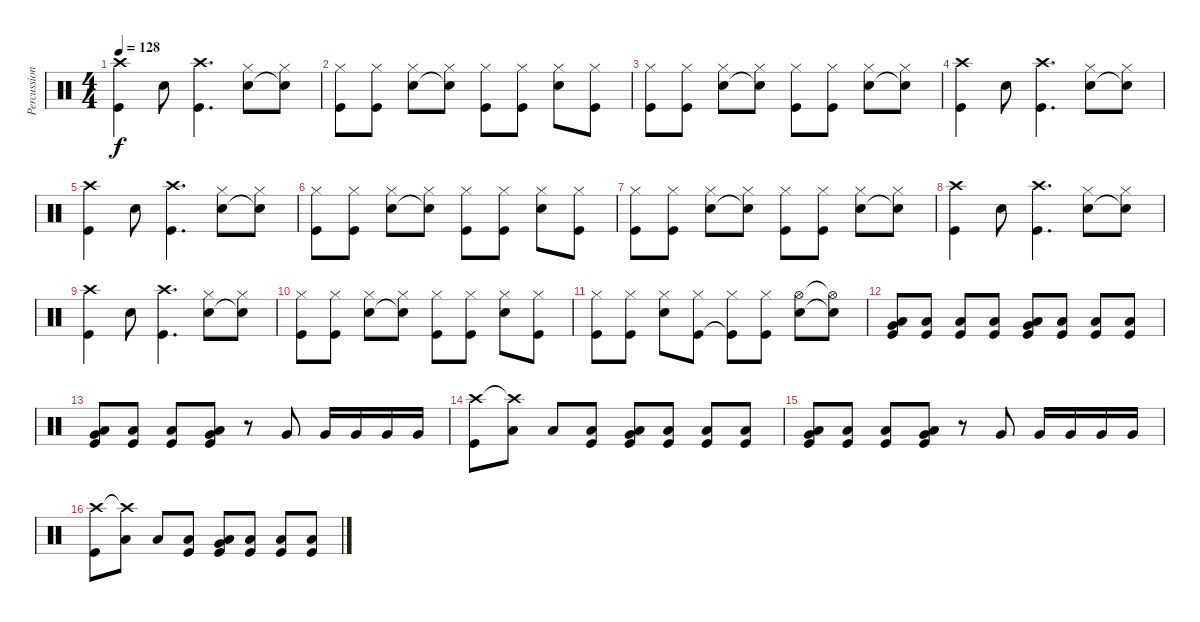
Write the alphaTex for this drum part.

\track ("Percussion" "Percussion") {instrument percussion}
\staff {score}
\articulation defaults
\ts (4 4)
\tempo 128
\clef neutral
\ks c
("Crash high (hit)" "Kick (hit)").4{dy f} "Snare (hit) 2".8 ("Crash high (hit)" "Kick (hit)").4{d} ("Hi-Hat (closed)" "Snare (hit) 2").8 ("Hi-Hat (closed)" "Snare (hit) 2"{t}).8 |
("Hi-Hat (closed)" "Kick (hit)").8 ("Hi-Hat (closed)" "Kick (hit)").8 ("Hi-Hat (closed)" "Snare (hit) 2").8 ("Hi-Hat (closed)" "Electric Snare (hit)"{t}).8 ("Hi-Hat (closed)" "Kick (hit)").8 ("Hi-Hat (closed)" "Kick (hit)").8 ("Hi-Hat (closed)" "Snare (hit) 2").8 ("Hi-Hat (closed)" "Kick (hit)").8 |
("Hi-Hat (closed)" "Kick (hit)").8 ("Hi-Hat (closed)" "Kick (hit)").8 ("Hi-Hat (closed)" "Snare (hit) 2").8 ("Hi-Hat (closed)" "Snare (hit) 2"{t}).8 ("Hi-Hat (closed)" "Kick (hit)").8 ("Hi-Hat (closed)" "Kick (hit)").8 ("Hi-Hat (closed)" "Snare (hit) 2").8 ("Hi-Hat (closed)" "Snare (hit) 2"{t}).8 |
("Crash high (hit)" "Kick (hit)").4 "Snare (hit) 2".8 ("Crash high (hit)" "Kick (hit)").4{d} ("Hi-Hat (closed)" "Snare (hit) 2").8 ("Hi-Hat (closed)" "Snare (hit) 2"{t}).8 |
("Crash high (hit)" "Kick (hit)").4 "Snare (hit) 2".8 ("Crash high (hit)" "Kick (hit)").4{d} ("Hi-Hat (closed)" "Snare (hit) 2").8 ("Hi-Hat (closed)" "Snare (hit) 2"{t}).8 |
("Hi-Hat (closed)" "Kick (hit)").8 ("Hi-Hat (closed)" "Kick (hit)").8 ("Hi-Hat (closed)" "Snare (hit) 2").8 ("Hi-Hat (closed)" "Electric Snare (hit)"{t}).8 ("Hi-Hat (closed)" "Kick (hit)").8 ("Hi-Hat (closed)" "Kick (hit)").8 ("Hi-Hat (closed)" "Snare (hit) 2").8 ("Hi-Hat (closed)" "Kick (hit)").8 |
("Hi-Hat (closed)" "Kick (hit)").8 ("Hi-Hat (closed)" "Kick (hit)").8 ("Hi-Hat (closed)" "Snare (hit) 2").8 ("Hi-Hat (closed)" "Snare (hit) 2"{t}).8 ("Hi-Hat (closed)" "Kick (hit)").8 ("Hi-Hat (closed)" "Kick (hit)").8 ("Hi-Hat (closed)" "Snare (hit) 2").8 ("Hi-Hat (closed)" "Snare (hit) 2"{t}).8 |
("Crash high (hit)" "Kick (hit)").4 "Snare (hit) 2".8 ("Crash high (hit)" "Kick (hit)").4{d} ("Hi-Hat (closed)" "Snare (hit) 2").8 ("Hi-Hat (closed)" "Snare (hit) 2"{t}).8 |
("Crash high (hit)" "Kick (hit)").4 "Snare (hit) 2".8 ("Crash high (hit)" "Kick (hit)").4{d} ("Hi-Hat (closed)" "Snare (hit) 2").8 ("Hi-Hat (closed)" "Snare (hit) 2"{t}).8 |
("Hi-Hat (closed)" "Kick (hit)").8 ("Hi-Hat (closed)" "Kick (hit)").8 ("Hi-Hat (closed)" "Snare (hit) 2").8 ("Hi-Hat (closed)" "Electric Snare (hit)"{t}).8 ("Hi-Hat (closed)" "Kick (hit)").8 ("Hi-Hat (closed)" "Kick (hit)").8 ("Hi-Hat (closed)" "Snare (hit) 2").8 ("Hi-Hat (closed)" "Kick (hit)").8 |
("Hi-Hat (closed)" "Kick (hit)").8 ("Hi-Hat (closed)" "Kick (hit)").8 ("Hi-Hat (closed)" "Snare (hit) 2").8 ("Hi-Hat (closed)" "Kick (hit)").8 ("Hi-Hat (closed)" "Kick (hit)"{t}).8 ("Hi-Hat (closed)" "Kick (hit)").8 ("Hi-Hat (open)" "Snare (hit) 2").8 ("Hi-Hat (open)"{t} "Snare (hit) 2"{t}).8 |
("Very Low Tom (hit)" "Low Floor Tom (hit)" "Kick (hit)").8 ("Low Floor Tom (hit)" "Kick (hit)").8 ("Low Floor Tom (hit)" "Kick (hit)").8 ("Low Floor Tom (hit)" "Kick (hit)").8 ("Very Low Tom (hit)" "Low Floor Tom (hit)" "Kick (hit)").8 ("Low Floor Tom (hit)" "Kick (hit)").8 ("Low Floor Tom (hit)" "Kick (hit)").8 ("Low Floor Tom (hit)" "Kick (hit)").8 |
("Very Low Tom (hit)" "Low Floor Tom (hit)" "Kick (hit)").8 ("Low Floor Tom (hit)" "Kick (hit)").8 ("Low Floor Tom (hit)" "Kick (hit)").8 ("Very Low Tom (hit)" "Low Floor Tom (hit)" "Kick (hit)").8 r.8 "Very Low Tom (hit)".8 "Very Low Tom (hit)".16 "Very Low Tom (hit)".16 "Very Low Tom (hit)".16 "Very Low Tom (hit)".16 |
("Crash high (hit)" "Kick (hit)").8 ("Crash high (hit)"{t} "Low Floor Tom (hit)").8 "Low Floor Tom (hit)".8 ("Low Floor Tom (hit)" "Kick (hit)").8 ("Very Low Tom (hit)" "Low Floor Tom (hit)" "Kick (hit)").8 ("Low Floor Tom (hit)" "Kick (hit)").8 ("Low Floor Tom (hit)" "Kick (hit)").8 ("Low Floor Tom (hit)" "Kick (hit)").8 |
("Very Low Tom (hit)" "Low Floor Tom (hit)" "Kick (hit)").8 ("Low Floor Tom (hit)" "Kick (hit)").8 ("Low Floor Tom (hit)" "Kick (hit)").8 ("Very Low Tom (hit)" "Low Floor Tom (hit)" "Kick (hit)").8 r.8 "Very Low Tom (hit)".8 "Very Low Tom (hit)".16 "Very Low Tom (hit)".16 "Very Low Tom (hit)".16 "Very Low Tom (hit)".16 |
("Crash high (hit)" "Kick (hit)").8 ("Crash high (hit)"{t} "Low Floor Tom (hit)").8 "Low Floor Tom (hit)".8 ("Low Floor Tom (hit)" "Kick (hit)").8 ("Very Low Tom (hit)" "Low Floor Tom (hit)" "Kick (hit)").8 ("Low Floor Tom (hit)" "Kick (hit)").8 ("Low Floor Tom (hit)" "Kick (hit)").8 ("Low Floor Tom (hit)" "Kick (hit)").8
